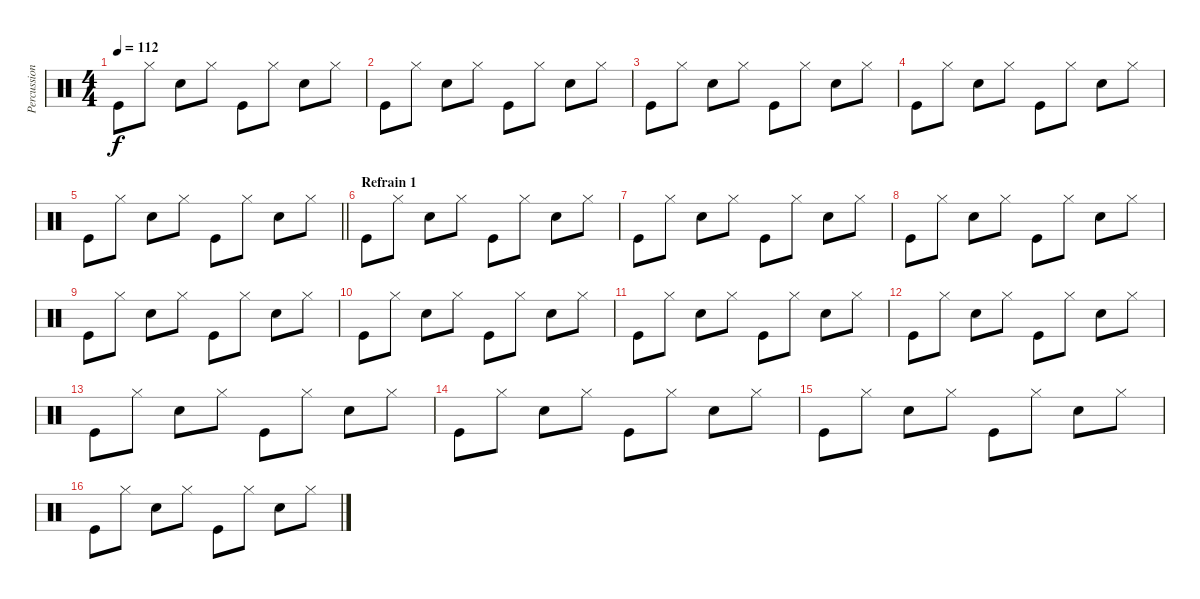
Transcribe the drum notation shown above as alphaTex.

\track ("Percussions" "Percussion") {instrument percussion}
\staff {score}
\articulation defaults
\ts (4 4)
\tempo 112
\clef neutral
\ks c "Kick (hit)".8{dy f} "Hi-Hat (closed)".8 "Snare (hit) 2".8 "Hi-Hat (closed)".8 "Kick (hit)".8 "Hi-Hat (closed)".8 "Snare (hit) 2".8 "Hi-Hat (closed)".8
|
"Kick (hit)".8 "Hi-Hat (closed)".8 "Snare (hit) 2".8 "Hi-Hat (closed)".8 "Kick (hit)".8 "Hi-Hat (closed)".8 "Snare (hit) 2".8 "Hi-Hat (closed)".8 |
"Kick (hit)".8 "Hi-Hat (closed)".8 "Snare (hit) 2".8 "Hi-Hat (closed)".8 "Kick (hit)".8 "Hi-Hat (closed)".8 "Snare (hit) 2".8 "Hi-Hat (closed)".8 |
"Kick (hit)".8 "Hi-Hat (closed)".8 "Snare (hit) 2".8 "Hi-Hat (closed)".8 "Kick (hit)".8 "Hi-Hat (closed)".8 "Snare (hit) 2".8 "Hi-Hat (closed)".8 |
\barLineRight lightlight "Kick (hit)".8 "Hi-Hat (closed)".8 "Snare (hit) 2".8 "Hi-Hat (closed)".8 "Kick (hit)".8 "Hi-Hat (closed)".8 "Snare (hit) 2".8 "Hi-Hat (closed)".8
|
\section ("" "Refrain 1")
"Kick (hit)".8 "Hi-Hat (closed)".8 "Snare (hit) 2".8 "Hi-Hat (closed)".8 "Kick (hit)".8 "Hi-Hat (closed)".8 "Snare (hit) 2".8 "Hi-Hat (closed)".8 |
"Kick (hit)".8 "Hi-Hat (closed)".8 "Snare (hit) 2".8 "Hi-Hat (closed)".8 "Kick (hit)".8 "Hi-Hat (closed)".8 "Snare (hit) 2".8 "Hi-Hat (closed)".8 |
"Kick (hit)".8 "Hi-Hat (closed)".8 "Snare (hit) 2".8 "Hi-Hat (closed)".8 "Kick (hit)".8 "Hi-Hat (closed)".8 "Snare (hit) 2".8 "Hi-Hat (closed)".8 |
"Kick (hit)".8 "Hi-Hat (closed)".8 "Snare (hit) 2".8 "Hi-Hat (closed)".8 "Kick (hit)".8 "Hi-Hat (closed)".8 "Snare (hit) 2".8 "Hi-Hat (closed)".8 |
"Kick (hit)".8 "Hi-Hat (closed)".8 "Snare (hit) 2".8 "Hi-Hat (closed)".8 "Kick (hit)".8 "Hi-Hat (closed)".8 "Snare (hit) 2".8 "Hi-Hat (closed)".8 |
"Kick (hit)".8 "Hi-Hat (closed)".8 "Snare (hit) 2".8 "Hi-Hat (closed)".8 "Kick (hit)".8 "Hi-Hat (closed)".8 "Snare (hit) 2".8 "Hi-Hat (closed)".8 |
"Kick (hit)".8 "Hi-Hat (closed)".8 "Snare (hit) 2".8 "Hi-Hat (closed)".8 "Kick (hit)".8 "Hi-Hat (closed)".8 "Snare (hit) 2".8 "Hi-Hat (closed)".8 |
"Kick (hit)".8 "Hi-Hat (closed)".8 "Snare (hit) 2".8 "Hi-Hat (closed)".8 "Kick (hit)".8 "Hi-Hat (closed)".8 "Snare (hit) 2".8 "Hi-Hat (closed)".8 |
"Kick (hit)".8 "Hi-Hat (closed)".8 "Snare (hit) 2".8 "Hi-Hat (closed)".8 "Kick (hit)".8 "Hi-Hat (closed)".8 "Snare (hit) 2".8 "Hi-Hat (closed)".8 |
"Kick (hit)".8 "Hi-Hat (closed)".8 "Snare (hit) 2".8 "Hi-Hat (closed)".8 "Kick (hit)".8 "Hi-Hat (closed)".8 "Snare (hit) 2".8 "Hi-Hat (closed)".8 |
"Kick (hit)".8 "Hi-Hat (closed)".8 "Snare (hit) 2".8 "Hi-Hat (closed)".8 "Kick (hit)".8 "Hi-Hat (closed)".8 "Snare (hit) 2".8 "Hi-Hat (closed)".8
